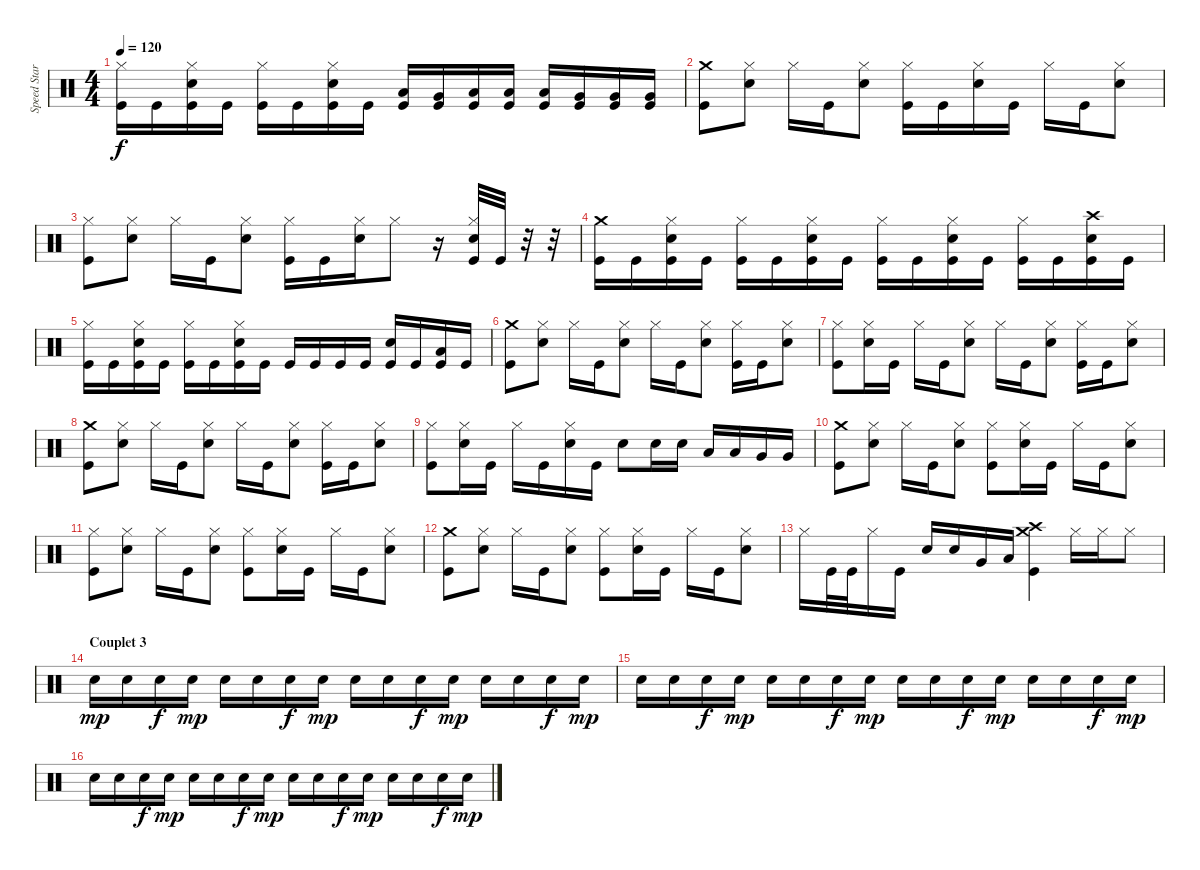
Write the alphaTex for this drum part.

\track ("Speed Star" "Speed Star") {instrument percussion}
\staff {score}
\articulation defaults
\ts (4 4)
\tempo 120
\clef neutral
\ks c
("Kick (hit)" "Hi-Hat (closed)").16{dy f} "Kick (hit)".16 ("Kick (hit)" "Snare (hit) 2" "Hi-Hat (closed)").16 "Kick (hit)".16 ("Kick (hit)" "Hi-Hat (closed)").16 "Kick (hit)".16 ("Kick (hit)" "Snare (hit) 2" "Hi-Hat (closed)").16 "Kick (hit)".16 ("Kick (hit)" "Low Floor Tom (hit)").16 ("Kick (hit)" "Very Low Tom (hit)").16 ("Kick (hit)" "Low Tom (hit)").16 ("Kick (hit)" "Low Tom (hit)").16 ("Kick (hit)" "Low Tom (hit)").16 ("Kick (hit)" "Very Low Tom (hit)").16 ("Kick (hit)" "Very Low Tom (hit)").16 ("Kick (hit)" "Very Low Tom (hit)").16 |
("Kick (hit)" "Crash medium (hit)").8 ("Snare (hit) 2" "Hi-Hat (closed)").8 "Hi-Hat (closed)".16 "Kick (hit)".16 ("Snare (hit) 2" "Hi-Hat (closed)").8 ("Kick (hit)" "Hi-Hat (closed)").16 "Kick (hit)".16 ("Snare (hit) 2" "Hi-Hat (closed)").16 "Kick (hit)".16 "Hi-Hat (closed)".16 "Kick (hit)".16 ("Snare (hit) 2" "Hi-Hat (closed)").8 |
("Kick (hit)" "Hi-Hat (closed)").8 ("Snare (hit) 2" "Hi-Hat (closed)").8 "Hi-Hat (closed)".16 "Kick (hit)".16 ("Snare (hit) 2" "Hi-Hat (closed)").8 ("Kick (hit)" "Hi-Hat (closed)").16 "Kick (hit)".16 ("Snare (hit) 2" "Hi-Hat (closed)").16 "Hi-Hat (closed)".8 r.16 ("Kick (hit)" "Snare (hit) 2" "Hi-Hat (closed)").32 "Kick (hit)".32 r.32 r.32 |
("Kick (hit)" "Crash medium (hit)").16 "Kick (hit)".16 ("Kick (hit)" "Snare (hit) 2" "Hi-Hat (closed)").16 "Kick (hit)".16 ("Kick (hit)" "Hi-Hat (closed)").16 "Kick (hit)".16 ("Kick (hit)" "Snare (hit) 2" "Hi-Hat (closed)").16 "Kick (hit)".16 ("Kick (hit)" "Hi-Hat (closed)").16 "Kick (hit)".16 ("Kick (hit)" "Snare (hit) 2" "Hi-Hat (closed)").16 "Kick (hit)".16 ("Kick (hit)" "Hi-Hat (closed)").16 "Kick (hit)".16 ("Kick (hit)" "Snare (hit) 2" "Crash high (hit)").16 "Kick (hit)".16 |
("Kick (hit)" "Hi-Hat (closed)").16 "Kick (hit)".16 ("Kick (hit)" "Snare (hit) 2" "Hi-Hat (closed)").16 "Kick (hit)".16 ("Kick (hit)" "Hi-Hat (closed)").16 "Kick (hit)".16 ("Kick (hit)" "Snare (hit) 2" "Hi-Hat (closed)").16 "Kick (hit)".16 "Kick (hit)".16 "Kick (hit)".16 "Kick (hit)".16 "Kick (hit)".16 ("Kick (hit)" "Snare (hit) 2").16 "Kick (hit)".16 ("Kick (hit)" "Low Floor Tom (hit)").16 "Kick (hit)".16 |
("Kick (hit)" "Crash medium (hit)").8 ("Snare (hit) 2" "Hi-Hat (closed)").8 "Hi-Hat (closed)".16 "Kick (hit)".16 ("Snare (hit) 2" "Hi-Hat (closed)").8 "Hi-Hat (closed)".16 "Kick (hit)".16 ("Snare (hit) 2" "Hi-Hat (closed)").8 ("Kick (hit)" "Hi-Hat (closed)").16 "Kick (hit)".16 ("Snare (hit) 2" "Hi-Hat (closed)").8 |
("Kick (hit)" "Hi-Hat (closed)").8 ("Snare (hit) 2" "Hi-Hat (closed)").16 "Kick (hit)".16 "Hi-Hat (closed)".16 "Kick (hit)".16 ("Snare (hit) 2" "Hi-Hat (closed)").8 "Hi-Hat (closed)".16 "Kick (hit)".16 ("Snare (hit) 2" "Hi-Hat (closed)").8 ("Kick (hit)" "Hi-Hat (closed)").16 "Kick (hit)".16 ("Snare (hit) 2" "Hi-Hat (closed)").8 |
("Kick (hit)" "Crash medium (hit)").8 ("Snare (hit) 2" "Hi-Hat (closed)").8 "Hi-Hat (closed)".16 "Kick (hit)".16 ("Snare (hit) 2" "Hi-Hat (closed)").8 "Hi-Hat (closed)".16 "Kick (hit)".16 ("Snare (hit) 2" "Hi-Hat (closed)").8 ("Kick (hit)" "Hi-Hat (closed)").16 "Kick (hit)".16 ("Snare (hit) 2" "Hi-Hat (closed)").8 |
("Kick (hit)" "Hi-Hat (closed)").8 ("Snare (hit) 2" "Hi-Hat (closed)").16 "Kick (hit)".16 "Hi-Hat (closed)".16 "Kick (hit)".16 ("Snare (hit) 2" "Hi-Hat (closed)").16 "Kick (hit)".16 "Snare (hit) 2".8 "Snare (hit) 2".16 "Snare (hit) 2".16 "Low Floor Tom (hit)".16 "Low Floor Tom (hit)".16 "Very Low Tom (hit)".16 "Very Low Tom (hit)".16 |
("Kick (hit)" "Crash medium (hit)").8 ("Snare (hit) 2" "Hi-Hat (closed)").8 "Hi-Hat (closed)".16 "Kick (hit)".16 ("Snare (hit) 2" "Hi-Hat (closed)").8 ("Kick (hit)" "Hi-Hat (closed)").8 ("Snare (hit) 2" "Hi-Hat (closed)").16 "Kick (hit)".16 "Hi-Hat (closed)".16 "Kick (hit)".16 ("Snare (hit) 2" "Hi-Hat (closed)").8 |
("Kick (hit)" "Hi-Hat (closed)").8 ("Snare (hit) 2" "Hi-Hat (closed)").8 "Hi-Hat (closed)".16 "Kick (hit)".16 ("Snare (hit) 2" "Hi-Hat (closed)").8 ("Kick (hit)" "Hi-Hat (closed)").8 ("Snare (hit) 2" "Hi-Hat (closed)").16 "Kick (hit)".16 "Hi-Hat (closed)".16 "Kick (hit)".16 ("Snare (hit) 2" "Hi-Hat (closed)").8 |
("Kick (hit)" "Crash medium (hit)").8 ("Snare (hit) 2" "Hi-Hat (closed)").8 "Hi-Hat (closed)".16 "Kick (hit)".16 ("Snare (hit) 2" "Hi-Hat (closed)").8 ("Kick (hit)" "Hi-Hat (closed)").8 ("Snare (hit) 2" "Hi-Hat (closed)").16 "Kick (hit)".16 "Hi-Hat (closed)".16 "Kick (hit)".16 ("Snare (hit) 2" "Hi-Hat (closed)").8 |
"Hi-Hat (closed)".16 "Kick (hit)".32 "Kick (hit)".32 "Hi-Hat (closed)".16 "Kick (hit)".16 "Snare (hit) 2".16 "Snare (hit) 2".16 "Very Low Tom (hit)".16 "Low Floor Tom (hit)".16 ("Kick (hit)" "Crash high (hit)" "Crash medium (hit)").4 "Hi-Hat (closed)".16 "Hi-Hat (closed)".16 "Hi-Hat (closed)".8 |
\section ("" "Couplet 3")
"Snare (hit) 2".16{dy mp} "Snare (hit) 2".16 "Snare (hit) 2".16{dy f} "Snare (hit) 2".16{dy mp} "Snare (hit) 2".16 "Snare (hit) 2".16 "Snare (hit) 2".16{dy f} "Snare (hit) 2".16{dy mp} "Snare (hit) 2".16 "Snare (hit) 2".16 "Snare (hit) 2".16{dy f} "Snare (hit) 2".16{dy mp} "Snare (hit) 2".16 "Snare (hit) 2".16 "Snare (hit) 2".16{dy f} "Snare (hit) 2".16{dy mp} |
"Snare (hit) 2".16 "Snare (hit) 2".16 "Snare (hit) 2".16{dy f} "Snare (hit) 2".16{dy mp} "Snare (hit) 2".16 "Snare (hit) 2".16 "Snare (hit) 2".16{dy f} "Snare (hit) 2".16{dy mp} "Snare (hit) 2".16 "Snare (hit) 2".16 "Snare (hit) 2".16{dy f} "Snare (hit) 2".16{dy mp} "Snare (hit) 2".16 "Snare (hit) 2".16 "Snare (hit) 2".16{dy f} "Snare (hit) 2".16{dy mp} |
"Snare (hit) 2".16 "Snare (hit) 2".16 "Snare (hit) 2".16{dy f} "Snare (hit) 2".16{dy mp} "Snare (hit) 2".16 "Snare (hit) 2".16 "Snare (hit) 2".16{dy f} "Snare (hit) 2".16{dy mp} "Snare (hit) 2".16 "Snare (hit) 2".16 "Snare (hit) 2".16{dy f} "Snare (hit) 2".16{dy mp} "Snare (hit) 2".16 "Snare (hit) 2".16 "Snare (hit) 2".16{dy f} "Snare (hit) 2".16{dy mp}
